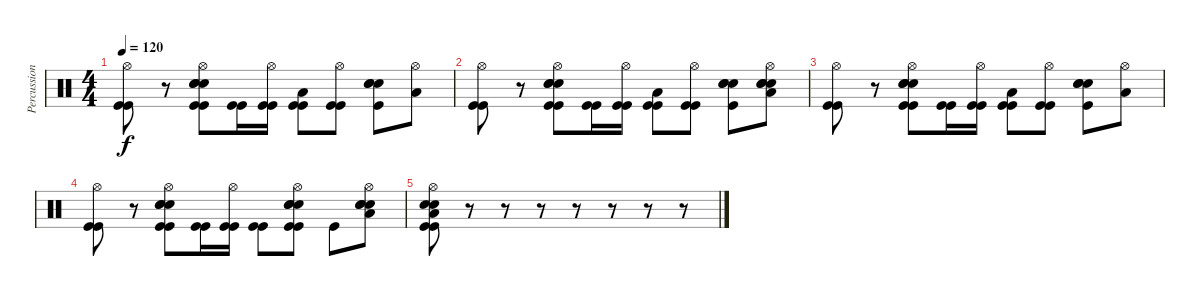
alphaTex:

\track ("Percussion" "Percussion") {instrument percussion}
\staff {score}
\articulation defaults
\ts (4 4)
\tempo 120
\clef neutral
\ks c
("Hi-Hat (open)" "Kick (hit)" "Kick (hit)").8{dy f} r.8 ("Hi-Hat (open)" "Kick (hit)" "Kick (hit)" "Electric Snare (hit)" "Electric Snare (hit)" "Electric Snare (hit)").8 ("Kick (hit)" "Kick (hit)").16 ("Hi-Hat (open)" "Kick (hit)" "Kick (hit)").16 ("Kick (hit)" "Kick (hit)" "Low Tom (hit)").8 ("Hi-Hat (open)" "Kick (hit)" "Kick (hit)").8 ("Kick (hit)" "Electric Snare (hit)" "Electric Snare (hit)" "Electric Snare (hit)").8 ("Hi-Hat (open)" "Low Tom (hit)").8 |
("Hi-Hat (open)" "Kick (hit)" "Kick (hit)").8 r.8 ("Hi-Hat (open)" "Kick (hit)" "Kick (hit)" "Electric Snare (hit)" "Electric Snare (hit)" "Electric Snare (hit)").8 ("Kick (hit)" "Kick (hit)").16 ("Hi-Hat (open)" "Kick (hit)" "Kick (hit)").16 ("Kick (hit)" "Kick (hit)" "Low Tom (hit)").8 ("Hi-Hat (open)" "Kick (hit)" "Kick (hit)").8 ("Kick (hit)" "Electric Snare (hit)" "Electric Snare (hit)" "Electric Snare (hit)").8 ("Hi-Hat (open)" "Low Tom (hit)" "Electric Snare (hit)" "Electric Snare (hit)" "Electric Snare (hit)").8 |
("Hi-Hat (open)" "Kick (hit)" "Kick (hit)").8 r.8 ("Hi-Hat (open)" "Kick (hit)" "Kick (hit)" "Electric Snare (hit)" "Electric Snare (hit)" "Electric Snare (hit)").8 ("Kick (hit)" "Kick (hit)").16 ("Hi-Hat (open)" "Kick (hit)" "Kick (hit)").16 ("Kick (hit)" "Kick (hit)" "Low Tom (hit)").8 ("Hi-Hat (open)" "Kick (hit)" "Kick (hit)").8 ("Kick (hit)" "Electric Snare (hit)" "Electric Snare (hit)" "Electric Snare (hit)").8 ("Hi-Hat (open)" "Low Tom (hit)").8 |
("Hi-Hat (open)" "Kick (hit)" "Kick (hit)").8 r.8 ("Hi-Hat (open)" "Kick (hit)" "Kick (hit)" "Electric Snare (hit)" "Electric Snare (hit)" "Electric Snare (hit)").8 ("Kick (hit)" "Kick (hit)").16 ("Hi-Hat (open)" "Kick (hit)" "Kick (hit)").16 ("Kick (hit)" "Kick (hit)").8 ("Hi-Hat (open)" "Kick (hit)" "Kick (hit)" "Electric Snare (hit)" "Electric Snare (hit)" "Electric Snare (hit)").8 "Kick (hit)".8 ("Hi-Hat (open)" "Low Tom (hit)" "Electric Snare (hit)" "Electric Snare (hit)" "Electric Snare (hit)").8 |
("Hi-Hat (open)" "Kick (hit)" "Kick (hit)" "Electric Snare (hit)" "Electric Snare (hit)" "Low Tom (hit)").8 r.8 r.8 r.8 r.8 r.8 r.8 r.8
